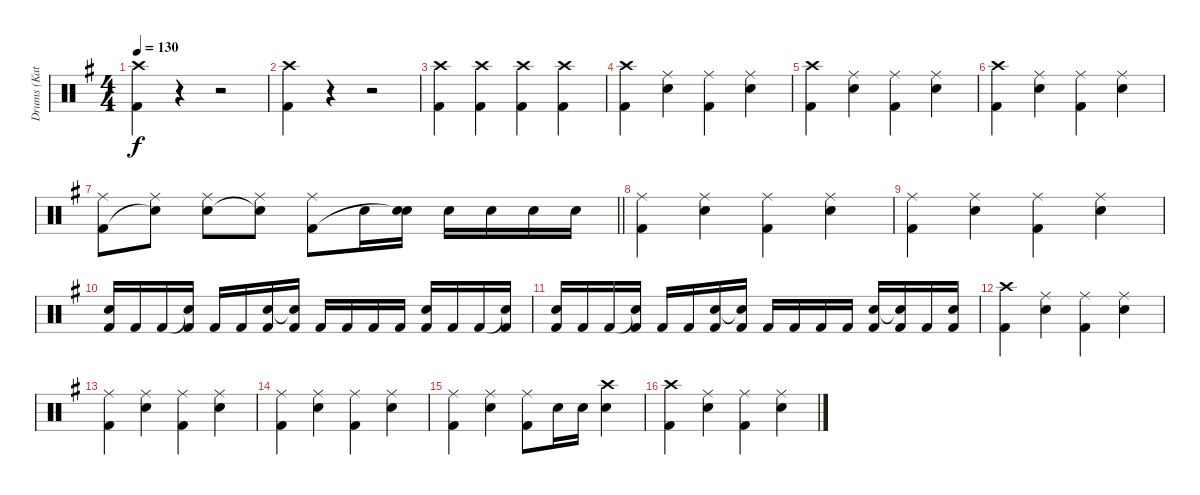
\track ("Drums (Katsuji)" "Drums (Kat") {instrument percussion}
\staff {score}
\articulation defaults
\ts (4 4)
\tempo 130
\clef neutral
\ks g
("Crash high (hit)" "Kick (hit) 2").4{dy f} r.4 r.2 |
("Crash high (hit)" "Kick (hit) 2").4 r.4 r.2 |
("Crash high (hit)" "Kick (hit) 2").4 ("Crash high (hit)" "Kick (hit) 2").4 ("Crash high (hit)" "Kick (hit) 2").4 ("Crash high (hit)" "Kick (hit) 2").4 |
("Crash high (hit)" "Kick (hit) 2").4 ("Ride (middle)" "Snare (hit) 2").4 ("Ride (middle)" "Kick (hit) 2").4 ("Ride (middle)" "Snare (hit) 2").4 |
("Crash high (hit)" "Kick (hit) 2").4 ("Ride (middle)" "Snare (hit) 2").4 ("Ride (middle)" "Kick (hit) 2").4 ("Ride (middle)" "Snare (hit) 2").4 |
("Crash high (hit)" "Kick (hit) 2").4 ("Ride (middle)" "Snare (hit) 2").4 ("Ride (middle)" "Kick (hit) 2").4 ("Ride (middle)" "Snare (hit) 2").4 |
\barLineRight lightlight
("Ride (middle)" "Kick (hit) 2").8 ("Ride (middle)" "Snare (hit)"{t}).8 ("Ride (middle)" "Snare (hit) 2").8 ("Ride (middle)" "Snare (hit)"{t}).8 ("Ride (middle)" "Kick (hit) 2").8 "Snare (hit) 2".16 ("Snare (hit) 2" "Snare (hit)"{t}).16 "Snare (hit) 2".16 "Snare (hit) 2".16 "Snare (hit) 2".16 "Snare (hit) 2".16 |
("Ride (middle)" "Kick (hit) 2").4 ("Ride (middle)" "Snare (hit) 2").4 ("Ride (middle)" "Kick (hit) 2").4 ("Ride (middle)" "Snare (hit) 2").4 |
("Ride (middle)" "Kick (hit) 2").4 ("Ride (middle)" "Snare (hit) 2").4 ("Ride (middle)" "Kick (hit) 2").4 ("Ride (middle)" "Snare (hit) 2").4 |
("Snare (hit) 2" "Kick (hit) 2").16 "Kick (hit) 2".16 "Kick (hit) 2".16 ("Snare (hit)"{t} "Kick (hit) 2").16 "Kick (hit) 2".16 "Kick (hit) 2".16 ("Snare (hit) 2" "Kick (hit) 2").16 ("Snare (hit)"{t} "Kick (hit) 2").16 "Kick (hit) 2".16 "Kick (hit) 2".16 "Kick (hit) 2".16 "Kick (hit) 2".16 ("Snare (hit) 2" "Kick (hit) 2").16 "Kick (hit) 2".16 "Kick (hit) 2".16 ("Snare (hit)"{t} "Kick (hit) 2").16 |
("Snare (hit) 2" "Kick (hit) 2").16 "Kick (hit) 2".16 "Kick (hit) 2".16 ("Snare (hit)"{t} "Kick (hit) 2").16 "Kick (hit) 2".16 "Kick (hit) 2".16 ("Snare (hit) 2" "Kick (hit) 2").16 ("Snare (hit)"{t} "Kick (hit) 2").16 "Kick (hit) 2".16 "Kick (hit) 2".16 "Kick (hit) 2".16 "Kick (hit) 2".16 ("Snare (hit) 2" "Kick (hit) 2").16 ("Snare (hit)"{t} "Kick (hit) 2").16 "Kick (hit) 2".16 ("Snare (hit) 2" "Kick (hit) 2").16 |
("Crash high (hit)" "Kick (hit) 2").4 ("Ride (middle)" "Snare (hit) 2").4 ("Ride (middle)" "Kick (hit) 2").4 ("Ride (middle)" "Snare (hit) 2").4 |
("Ride (middle)" "Kick (hit) 2").4 ("Ride (middle)" "Snare (hit) 2").4 ("Ride (middle)" "Kick (hit) 2").4 ("Ride (middle)" "Snare (hit) 2").4 |
("Ride (middle)" "Kick (hit) 2").4 ("Ride (middle)" "Snare (hit) 2").4 ("Ride (middle)" "Kick (hit) 2").4 ("Ride (middle)" "Snare (hit) 2").4 |
("Ride (middle)" "Kick (hit) 2").4 ("Ride (middle)" "Snare (hit) 2").4 ("Ride (middle)" "Kick (hit) 2").8 "Snare (hit) 2".16 "Snare (hit) 2".16 ("Crash high (hit)" "Snare (hit) 2").4 |
("Crash high (hit)" "Kick (hit) 2").4 ("Ride (middle)" "Snare (hit) 2").4 ("Ride (middle)" "Kick (hit) 2").4 ("Ride (middle)" "Snare (hit) 2").4
